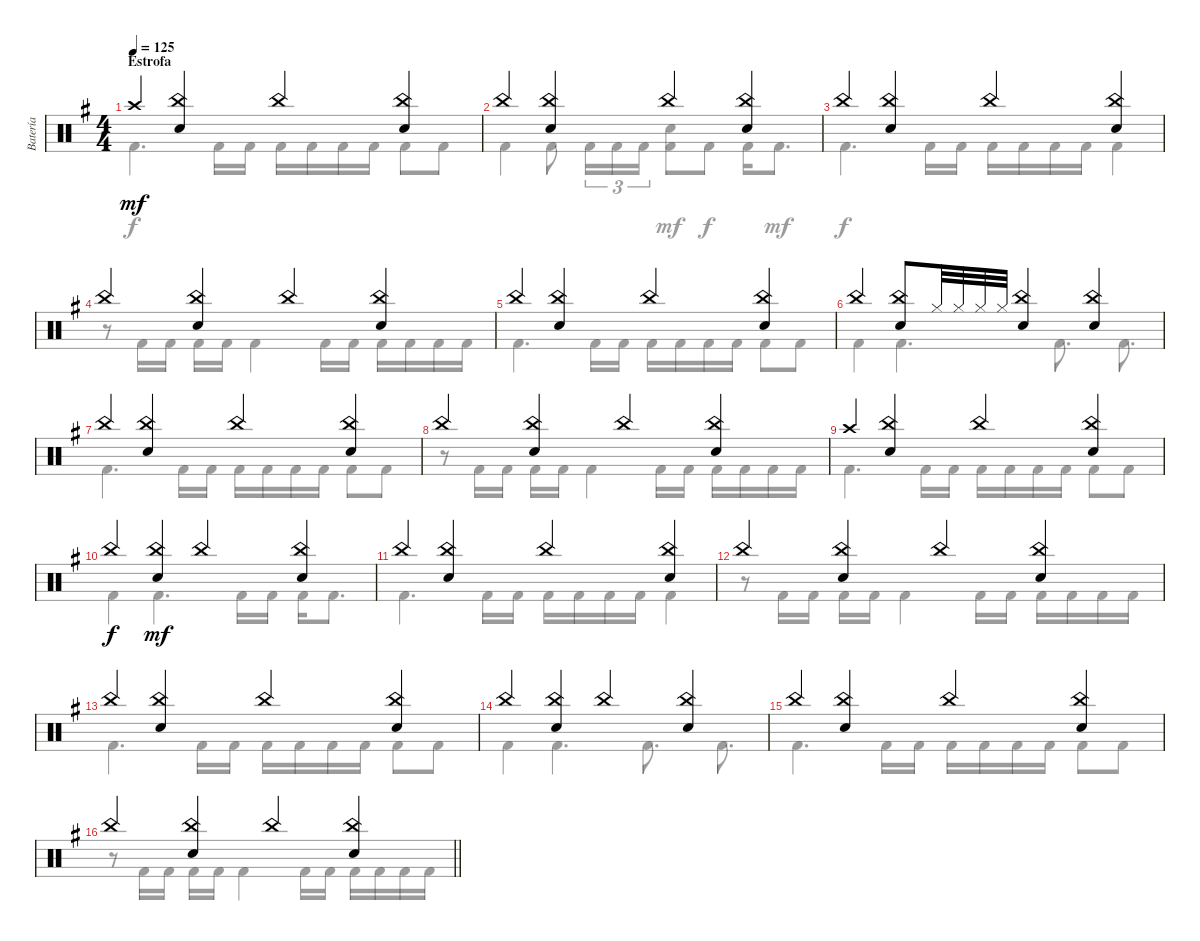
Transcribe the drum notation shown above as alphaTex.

\track ("Batería" "Batería") {instrument percussion}
\staff {score}
\articulation defaults
\voice
\ts (4 4)
\section ("" "Estrofa")
\tempo 125
\clef neutral
\ks g "Crash high (hit)".4{dy mf}
("China (hit)" "Snare (hit) 2").4 "China (hit)".4 ("China (hit)" "Snare (hit) 2").4 |
"China (hit)".4 ("China (hit)" "Snare (hit) 2").4 "China (hit)".4 ("China (hit)" "Snare (hit) 2").4 |
"China (hit)".4 ("China (hit)" "Snare (hit) 2").4 "China (hit)".4 ("China (hit)" "Snare (hit) 2").4 |
"China (hit)".4 ("China (hit)" "Snare (hit) 2").4 "China (hit)".4 ("China (hit)" "Snare (hit) 2").4 |
"China (hit)".4 ("China (hit)" "Snare (hit) 2").4 "China (hit)".4 ("China (hit)" "Snare (hit) 2").4 |
"China (hit)".4 ("China (hit)" "Snare (hit) 2").8 "Hi-Hat (closed)".32 "Hi-Hat (closed)".32 "Hi-Hat (closed)".32 "Hi-Hat (closed)".32 ("China (hit)" "Snare (hit) 2").4 ("China (hit)" "Snare (hit) 2").4 |
"China (hit)".4 ("China (hit)" "Snare (hit) 2").4 "China (hit)".4 ("China (hit)" "Snare (hit) 2").4 |
"China (hit)".4 ("China (hit)" "Snare (hit) 2").4 "China (hit)".4 ("China (hit)" "Snare (hit) 2").4 |
"Crash high (hit)".4{volume 13} ("China (hit)" "Snare (hit) 2").4 "China (hit)".4 ("China (hit)" "Snare (hit) 2").4 |
"China (hit)".4{dy f} ("China (hit)" "Snare (hit) 2").4{dy mf} "China (hit)".4 ("China (hit)" "Snare (hit) 2").4 |
"China (hit)".4 ("China (hit)" "Snare (hit) 2").4 "China (hit)".4 ("China (hit)" "Snare (hit) 2").4 |
"China (hit)".4 ("China (hit)" "Snare (hit) 2").4 "China (hit)".4 ("China (hit)" "Snare (hit) 2").4 |
"China (hit)".4 ("China (hit)" "Snare (hit) 2").4 "China (hit)".4 ("China (hit)" "Snare (hit) 2").4 |
"China (hit)".4 ("China (hit)" "Snare (hit) 2").4 "China (hit)".4 ("China (hit)" "Snare (hit) 2").4 |
"China (hit)".4 ("China (hit)" "Snare (hit) 2").4 "China (hit)".4 ("China (hit)" "Snare (hit) 2").4 |
\barLineRight lightlight "China (hit)".4
("China (hit)" "Snare (hit) 2").4 "China (hit)".4 ("China (hit)" "Snare (hit) 2").4
\voice
\clef neutral
\ottava regular
\simile none
\ks g "Kick (hit) 2".4{d dy f} "Kick (hit) 2".16 "Kick (hit) 2".16 "Kick (hit) 2".16 "Kick (hit) 2".16 "Kick (hit) 2".16 "Kick (hit) 2".16 "Kick (hit) 2".8 "Kick (hit) 2".8
|
"Kick (hit) 2".4 "Kick (hit) 2".8 "Kick (hit) 2".16{tu (3 2)} "Kick (hit) 2".16{tu (3 2)} "Kick (hit) 2".16{tu (3 2)} ("Snare (hit) 2" "Kick (hit) 2").8{dy mf} "Kick (hit) 2".8{dy f} "Kick (hit) 2".16 "Kick (hit) 2".8{d dy mf} |
"Kick (hit) 2".4{d dy f} "Kick (hit) 2".16 "Kick (hit) 2".16 "Kick (hit) 2".16 "Kick (hit) 2".16 "Kick (hit) 2".16 "Kick (hit) 2".16 "Kick (hit) 2".4 |
r.8 "Kick (hit) 2".16 "Kick (hit) 2".16 "Kick (hit) 2".16 "Kick (hit) 2".16 "Kick (hit) 2".4 "Kick (hit) 2".16 "Kick (hit) 2".16 "Kick (hit) 2".16 "Kick (hit) 2".16 "Kick (hit) 2".16 "Kick (hit) 2".16 |
"Kick (hit) 2".4{d} "Kick (hit) 2".16 "Kick (hit) 2".16 "Kick (hit) 2".16 "Kick (hit) 2".16 "Kick (hit) 2".16 "Kick (hit) 2".16 "Kick (hit) 2".8 "Kick (hit) 2".8 |
"Kick (hit) 2".4 "Kick (hit) 2".4{d} "Kick (hit) 2".8{d} "Kick (hit) 2".8{d} |
"Kick (hit) 2".4{d} "Kick (hit) 2".16 "Kick (hit) 2".16 "Kick (hit) 2".16 "Kick (hit) 2".16 "Kick (hit) 2".16 "Kick (hit) 2".16 "Kick (hit) 2".8 "Kick (hit) 2".8 |
r.8 "Kick (hit) 2".16 "Kick (hit) 2".16 "Kick (hit) 2".16 "Kick (hit) 2".16 "Kick (hit) 2".4 "Kick (hit) 2".16 "Kick (hit) 2".16 "Kick (hit) 2".16 "Kick (hit) 2".16 "Kick (hit) 2".16 "Kick (hit) 2".16 |
"Kick (hit) 2".4{d} "Kick (hit) 2".16 "Kick (hit) 2".16 "Kick (hit) 2".16 "Kick (hit) 2".16 "Kick (hit) 2".16 "Kick (hit) 2".16 "Kick (hit) 2".8 "Kick (hit) 2".8 |
"Kick (hit) 2".4 "Kick (hit) 2".4{d} "Kick (hit) 2".16 "Kick (hit) 2".16 "Kick (hit) 2".16 "Kick (hit) 2".8{d} |
"Kick (hit) 2".4{d} "Kick (hit) 2".16 "Kick (hit) 2".16 "Kick (hit) 2".16 "Kick (hit) 2".16 "Kick (hit) 2".16 "Kick (hit) 2".16 "Kick (hit) 2".4 |
r.8 "Kick (hit) 2".16 "Kick (hit) 2".16 "Kick (hit) 2".16 "Kick (hit) 2".16 "Kick (hit) 2".4 "Kick (hit) 2".16 "Kick (hit) 2".16 "Kick (hit) 2".16 "Kick (hit) 2".16 "Kick (hit) 2".16 "Kick (hit) 2".16 |
"Kick (hit) 2".4{d} "Kick (hit) 2".16 "Kick (hit) 2".16 "Kick (hit) 2".16 "Kick (hit) 2".16 "Kick (hit) 2".16 "Kick (hit) 2".16 "Kick (hit) 2".8 "Kick (hit) 2".8 |
"Kick (hit) 2".4 "Kick (hit) 2".4{d} "Kick (hit) 2".8{d} "Kick (hit) 2".8{d} |
"Kick (hit) 2".4{d} "Kick (hit) 2".16 "Kick (hit) 2".16 "Kick (hit) 2".16 "Kick (hit) 2".16 "Kick (hit) 2".16 "Kick (hit) 2".16 "Kick (hit) 2".8 "Kick (hit) 2".8 |
\barLineRight lightlight
r.8 "Kick (hit) 2".16 "Kick (hit) 2".16 "Kick (hit) 2".16 "Kick (hit) 2".16 "Kick (hit) 2".4 "Kick (hit) 2".16 "Kick (hit) 2".16 "Kick (hit) 2".16 "Kick (hit) 2".16 "Kick (hit) 2".16 "Kick (hit) 2".16
